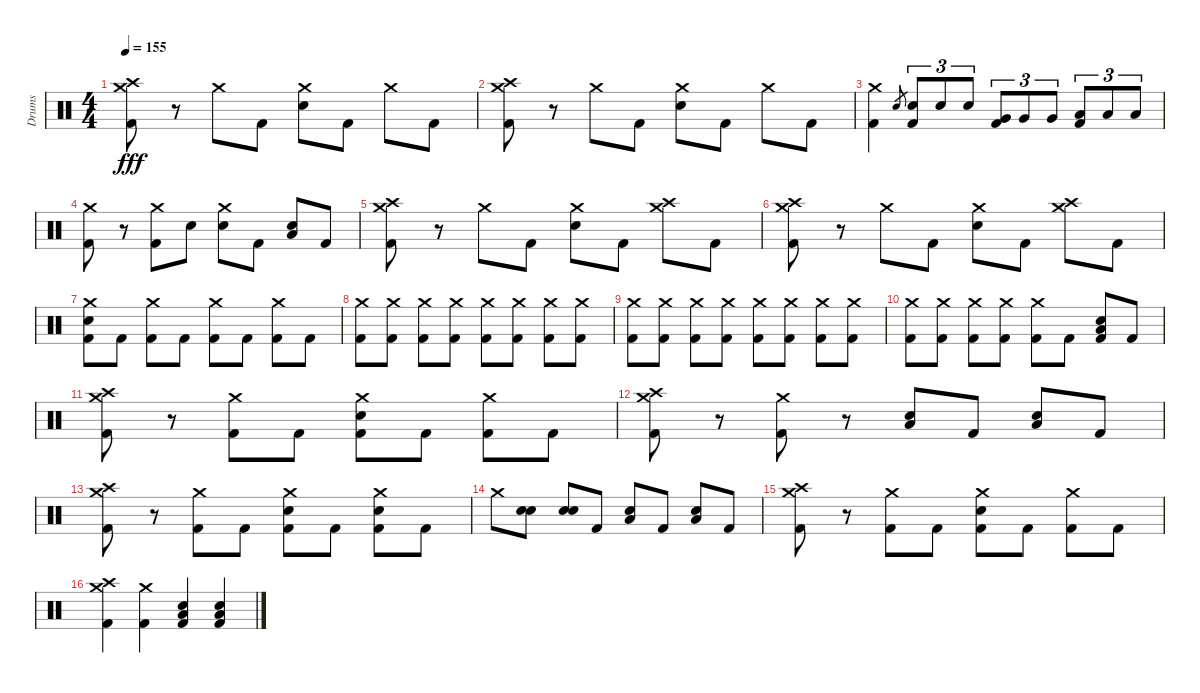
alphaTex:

\track ("Drums" "Drums") {instrument percussion}
\staff {score}
\articulation defaults
\ts (4 4)
\tempo 155
\clef neutral
\ks c
("Crash high (hit)" "Crash medium (hit)" "Kick (hit) 2").8{dy fff} r.8 "Crash medium (hit)".8 "Kick (hit) 2".8 ("Crash medium (hit)" "Electric Snare (hit)").8 "Kick (hit) 2".8 "Crash medium (hit)".8 "Kick (hit) 2".8 |
("Crash high (hit)" "Crash medium (hit)" "Kick (hit) 2").8 r.8 "Crash medium (hit)".8 "Kick (hit) 2".8 ("Crash medium (hit)" "Electric Snare (hit)").8 "Kick (hit) 2".8 "Crash medium (hit)".8 "Kick (hit) 2".8 |
("Crash medium (hit)" "Kick (hit) 2").4 "Electric Snare (hit)".8{gr} ("Electric Snare (hit)" "Kick (hit) 2").8{tu (3 2)} "Electric Snare (hit)".8{tu (3 2)} "Electric Snare (hit)".8{tu (3 2)} ("Very Low Tom (hit)" "Kick (hit) 2").8{tu (3 2)} "Very Low Tom (hit)".8{tu (3 2)} "Very Low Tom (hit)".8{tu (3 2)} ("Low Floor Tom (hit)" "Kick (hit) 2").8{tu (3 2)} "Low Floor Tom (hit)".8{tu (3 2)} "Low Floor Tom (hit)".8{tu (3 2)} |
("Crash medium (hit)" "Kick (hit) 2").8 r.8 ("Crash medium (hit)" "Kick (hit) 2").8 "Electric Snare (hit)".8 ("Crash medium (hit)" "Electric Snare (hit)").8 "Kick (hit) 2".8 ("Low Floor Tom (hit)" "Electric Snare (hit)").8 "Kick (hit) 2".8 |
("Crash high (hit)" "Crash medium (hit)" "Kick (hit) 2").8 r.8 "Crash medium (hit)".8 "Kick (hit) 2".8 ("Crash medium (hit)" "Electric Snare (hit)").8 "Kick (hit) 2".8 ("Crash high (hit)" "Crash medium (hit)").8 "Kick (hit) 2".8 |
("Crash high (hit)" "Crash medium (hit)" "Kick (hit) 2").8 r.8 "Crash medium (hit)".8 "Kick (hit) 2".8 ("Crash medium (hit)" "Electric Snare (hit)").8 "Kick (hit) 2".8 ("Crash high (hit)" "Crash medium (hit)").8 "Kick (hit) 2".8 |
("Crash medium (hit)" "Electric Snare (hit)" "Kick (hit) 2").8 "Kick (hit) 2".8 ("Crash medium (hit)" "Kick (hit) 2").8 "Kick (hit) 2".8 ("Crash medium (hit)" "Kick (hit) 2").8 "Kick (hit) 2".8 ("Crash medium (hit)" "Kick (hit) 2").8 "Kick (hit) 2".8 |
("Crash medium (hit)" "Kick (hit) 2").8 ("Crash medium (hit)" "Kick (hit) 2").8 ("Crash medium (hit)" "Kick (hit) 2").8 ("Crash medium (hit)" "Kick (hit) 2").8 ("Crash medium (hit)" "Kick (hit) 2").8 ("Crash medium (hit)" "Kick (hit) 2").8 ("Crash medium (hit)" "Kick (hit) 2").8 ("Crash medium (hit)" "Kick (hit) 2").8 |
("Crash medium (hit)" "Kick (hit) 2").8 ("Crash medium (hit)" "Kick (hit) 2").8 ("Crash medium (hit)" "Kick (hit) 2").8 ("Crash medium (hit)" "Kick (hit) 2").8 ("Crash medium (hit)" "Kick (hit) 2").8 ("Crash medium (hit)" "Kick (hit) 2").8 ("Crash medium (hit)" "Kick (hit) 2").8 ("Crash medium (hit)" "Kick (hit) 2").8 |
("Crash medium (hit)" "Kick (hit) 2").8 ("Crash medium (hit)" "Kick (hit) 2").8 ("Crash medium (hit)" "Kick (hit) 2").8 ("Crash medium (hit)" "Kick (hit) 2").8 ("Crash medium (hit)" "Kick (hit) 2").8 "Kick (hit) 2".8 ("Low Floor Tom (hit)" "Electric Snare (hit)" "Kick (hit) 2").8 "Kick (hit) 2".8 |
("Crash high (hit)" "Crash medium (hit)" "Kick (hit) 2").8 r.8 ("Crash medium (hit)" "Kick (hit) 2").8 "Kick (hit) 2".8 ("Crash medium (hit)" "Electric Snare (hit)" "Kick (hit) 2").8 "Kick (hit) 2".8 ("Crash medium (hit)" "Kick (hit) 2").8 "Kick (hit) 2".8 |
("Crash high (hit)" "Crash medium (hit)" "Kick (hit) 2").8 r.8 ("Crash medium (hit)" "Kick (hit) 2").8 r.8 ("Low Floor Tom (hit)" "Electric Snare (hit)").8 "Kick (hit) 2".8 ("Low Floor Tom (hit)" "Electric Snare (hit)").8 "Kick (hit) 2".8 |
("Crash high (hit)" "Crash medium (hit)" "Kick (hit) 2").8 r.8 ("Crash medium (hit)" "Kick (hit) 2").8 "Kick (hit) 2".8 ("Crash medium (hit)" "Electric Snare (hit)" "Kick (hit) 2").8 "Kick (hit) 2".8 ("Crash medium (hit)" "Electric Snare (hit)" "Kick (hit) 2").8 "Kick (hit) 2".8 |
"Crash medium (hit)".8 ("Electric Snare (hit)" "Electric Snare (hit)").8 ("Electric Snare (hit)" "Electric Snare (hit)").8 "Kick (hit) 2".8 ("Low Floor Tom (hit)" "Electric Snare (hit)").8 "Kick (hit) 2".8 ("Low Floor Tom (hit)" "Electric Snare (hit)").8 "Kick (hit) 2".8 |
("Crash high (hit)" "Crash medium (hit)" "Kick (hit) 2").8 r.8 ("Crash medium (hit)" "Kick (hit) 2").8 "Kick (hit) 2".8 ("Crash medium (hit)" "Electric Snare (hit)" "Kick (hit) 2").8 "Kick (hit) 2".8 ("Crash medium (hit)" "Kick (hit) 2").8 "Kick (hit) 2".8 |
("Crash high (hit)" "Crash medium (hit)" "Kick (hit) 2").4 ("Crash medium (hit)" "Kick (hit) 2").4 ("Low Floor Tom (hit)" "Electric Snare (hit)" "Kick (hit) 2").4 ("Low Floor Tom (hit)" "Electric Snare (hit)" "Kick (hit) 2").4
